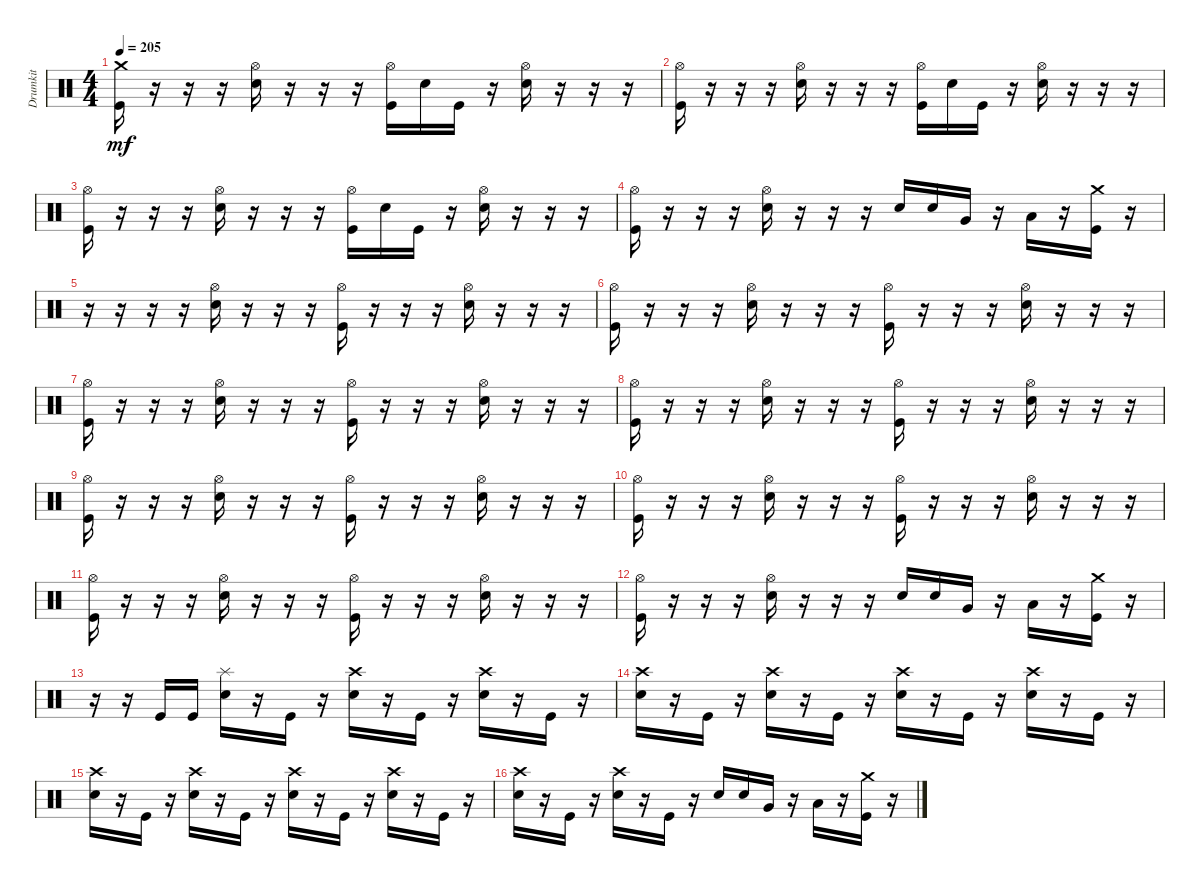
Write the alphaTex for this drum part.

\track ("Drumkit" "Drumkit") {instrument percussion}
\staff {score}
\articulation defaults
\ts (4 4)
\tempo 205
\clef neutral
\ks c
("Kick (hit)" "Crash medium (hit)").16{dy mf} r.16 r.16 r.16 ("Snare (hit) 2" "Hi-Hat (open)").16 r.16 r.16 r.16 ("Kick (hit)" "Hi-Hat (open)").16 "Snare (hit) 2".16 "Kick (hit)".16 r.16 ("Snare (hit) 2" "Hi-Hat (open)").16 r.16 r.16 r.16 |
("Kick (hit)" "Hi-Hat (open)").16 r.16 r.16 r.16 ("Snare (hit) 2" "Hi-Hat (open)").16 r.16 r.16 r.16 ("Kick (hit)" "Hi-Hat (open)").16 "Snare (hit) 2".16 "Kick (hit)".16 r.16 ("Snare (hit) 2" "Hi-Hat (open)").16 r.16 r.16 r.16 |
("Kick (hit)" "Hi-Hat (open)").16 r.16 r.16 r.16 ("Snare (hit) 2" "Hi-Hat (open)").16 r.16 r.16 r.16 ("Kick (hit)" "Hi-Hat (open)").16 "Snare (hit) 2".16 "Kick (hit)".16 r.16 ("Snare (hit) 2" "Hi-Hat (open)").16 r.16 r.16 r.16 |
("Kick (hit)" "Hi-Hat (open)").16 r.16 r.16 r.16 ("Snare (hit) 2" "Hi-Hat (open)").16 r.16 r.16 r.16 "Snare (hit) 2".16 "Snare (hit) 2".16 "Very Low Tom (hit)".16 r.16 "Low Floor Tom (hit)".16 r.16 ("Crash medium (hit)" "Kick (hit)").16 r.16 |
r.16 r.16 r.16 r.16 ("Snare (hit) 2" "Hi-Hat (open)").16 r.16 r.16 r.16 ("Kick (hit)" "Hi-Hat (open)").16 r.16 r.16 r.16 ("Snare (hit) 2" "Hi-Hat (open)").16 r.16 r.16 r.16 |
("Hi-Hat (open)" "Kick (hit)").16 r.16 r.16 r.16 ("Snare (hit) 2" "Hi-Hat (open)").16 r.16 r.16 r.16 ("Kick (hit)" "Hi-Hat (open)").16 r.16 r.16 r.16 ("Snare (hit) 2" "Hi-Hat (open)").16 r.16 r.16 r.16 |
("Hi-Hat (open)" "Kick (hit)").16 r.16 r.16 r.16 ("Snare (hit) 2" "Hi-Hat (open)").16 r.16 r.16 r.16 ("Kick (hit)" "Hi-Hat (open)").16 r.16 r.16 r.16 ("Snare (hit) 2" "Hi-Hat (open)").16 r.16 r.16 r.16 |
("Hi-Hat (open)" "Kick (hit)").16 r.16 r.16 r.16 ("Snare (hit) 2" "Hi-Hat (open)").16 r.16 r.16 r.16 ("Kick (hit)" "Hi-Hat (open)").16 r.16 r.16 r.16 ("Snare (hit) 2" "Hi-Hat (open)").16 r.16 r.16 r.16 |
("Hi-Hat (open)" "Kick (hit)").16 r.16 r.16 r.16 ("Snare (hit) 2" "Hi-Hat (open)").16 r.16 r.16 r.16 ("Kick (hit)" "Hi-Hat (open)").16 r.16 r.16 r.16 ("Snare (hit) 2" "Hi-Hat (open)").16 r.16 r.16 r.16 |
("Hi-Hat (open)" "Kick (hit)").16 r.16 r.16 r.16 ("Snare (hit) 2" "Hi-Hat (open)").16 r.16 r.16 r.16 ("Kick (hit)" "Hi-Hat (open)").16 r.16 r.16 r.16 ("Snare (hit) 2" "Hi-Hat (open)").16 r.16 r.16 r.16 |
("Hi-Hat (open)" "Kick (hit)").16 r.16 r.16 r.16 ("Snare (hit) 2" "Hi-Hat (open)").16 r.16 r.16 r.16 ("Kick (hit)" "Hi-Hat (open)").16 r.16 r.16 r.16 ("Snare (hit) 2" "Hi-Hat (open)").16 r.16 r.16 r.16 |
("Kick (hit)" "Hi-Hat (open)").16 r.16 r.16 r.16 ("Snare (hit) 2" "Hi-Hat (open)").16 r.16 r.16 r.16 "Snare (hit) 2".16 "Snare (hit) 2".16 "Very Low Tom (hit)".16 r.16 "Low Floor Tom (hit)".16 r.16 ("Crash medium (hit)" "Kick (hit)").16 r.16 |
r.16 r.16 "Kick (hit)".16 "Kick (hit)".16 ("Snare (hit) 2" "Splash (hit)").16 r.16 "Kick (hit)".16 r.16 ("Snare (hit) 2" "Crash high (hit)").16 r.16 "Kick (hit)".16 r.16 ("Snare (hit) 2" "Crash high (hit)").16 r.16 "Kick (hit)".16 r.16 |
("Snare (hit) 2" "Crash high (hit)").16 r.16 "Kick (hit)".16 r.16 ("Snare (hit) 2" "Crash high (hit)").16 r.16 "Kick (hit)".16 r.16 ("Snare (hit) 2" "Crash high (hit)").16 r.16 "Kick (hit)".16 r.16 ("Snare (hit) 2" "Crash high (hit)").16 r.16 "Kick (hit)".16 r.16 |
("Snare (hit) 2" "Crash high (hit)").16 r.16 "Kick (hit)".16 r.16 ("Snare (hit) 2" "Crash high (hit)").16 r.16 "Kick (hit)".16 r.16 ("Snare (hit) 2" "Crash high (hit)").16 r.16 "Kick (hit)".16 r.16 ("Snare (hit) 2" "Crash high (hit)").16 r.16 "Kick (hit)".16 r.16 |
("Snare (hit) 2" "Crash high (hit)").16 r.16 "Kick (hit)".16 r.16 ("Snare (hit) 2" "Crash high (hit)").16 r.16 "Kick (hit)".16 r.16 "Snare (hit) 2".16 "Snare (hit) 2".16 "Very Low Tom (hit)".16 r.16 "Low Floor Tom (hit)".16 r.16 ("Crash medium (hit)" "Kick (hit)").16 r.16
